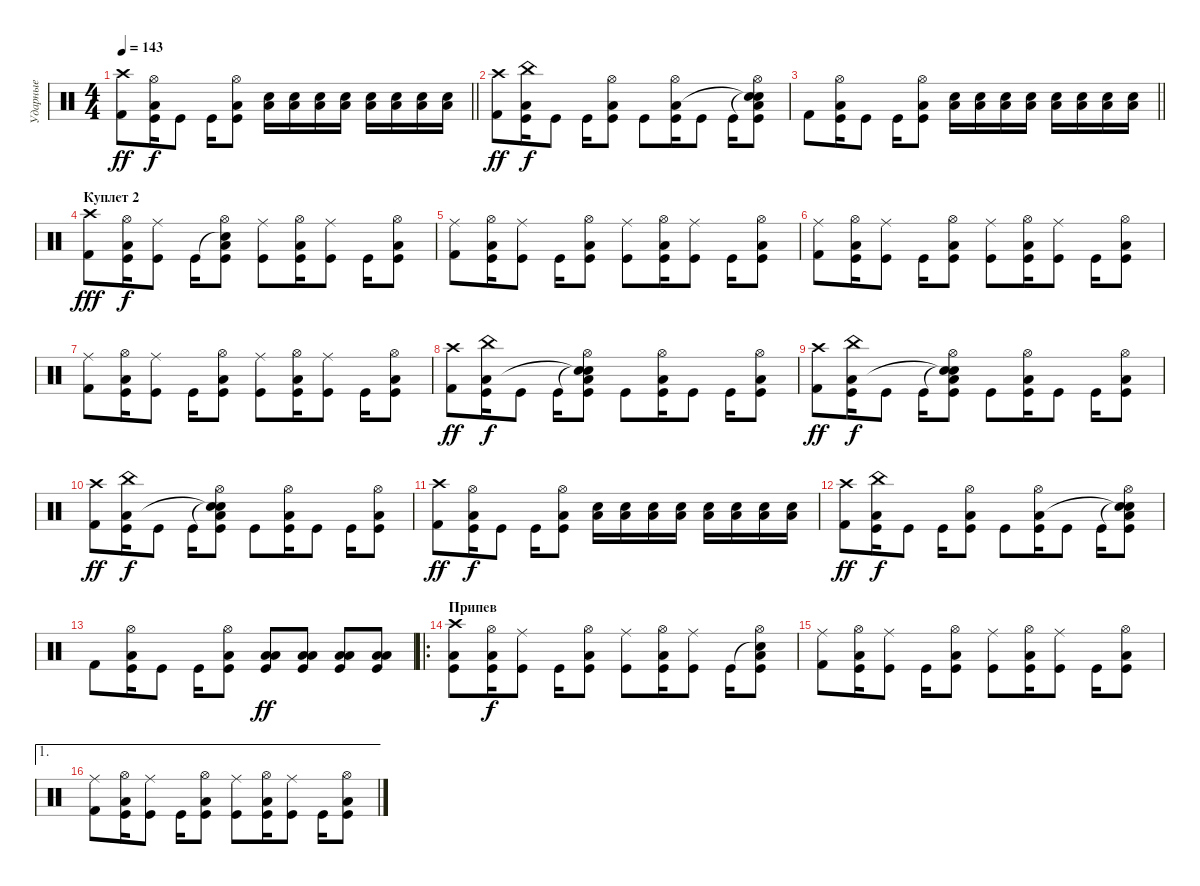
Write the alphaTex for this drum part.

\track ("Ударные" "Ударные") {instrument percussion}
\staff {score}
\articulation defaults
\ts (4 4)
\tempo 143
\clef neutral
\barLineRight lightlight
\ks c
("Crash high (hit)" "Kick (hit) 2").8{dy ff balance 14} ("Hi-Hat (open)" "Low Tom (hit)" "Kick (hit)").16{dy f} "Kick (hit)".8{balance 8} "Kick (hit)".16 ("Hi-Hat (open)" "Low Tom (hit)" "Kick (hit)").8 ("Snare (hit) 2" "Low Tom (hit)").16 ("Snare (hit) 2" "Low Tom (hit)").16 ("Snare (hit) 2" "Low Tom (hit)").16 ("Snare (hit) 2" "Low Tom (hit)").16 ("Snare (hit) 2" "Low Tom (hit)").16 ("Snare (hit) 2" "Low Tom (hit)").16 ("Snare (hit) 2" "Low Tom (hit)").16 ("Snare (hit) 2" "Low Tom (hit)").16 |
\section ("" " ")
("Crash high (hit)" "Kick (hit) 2").8{dy ff balance 14} ("China (hit)" "Low Tom (hit)" "Kick (hit)").16{dy f} "Kick (hit)".8{balance 8} "Kick (hit)".16 ("Hi-Hat (open)" "Low Tom (hit)" "Kick (hit)").8 "Kick (hit)".8 ("Hi-Hat (open)" "Low Tom (hit)" "Kick (hit)").16 "Kick (hit)".8 "Kick (hit)".16 ("Snare (hit)"{t} "Snare (hit)"{t} "Hi-Hat (open)" "Low Tom (hit)" "Kick (hit)").8 |
\barLineRight lightlight "Kick (hit) 2".8
("Hi-Hat (open)" "Low Tom (hit)" "Kick (hit)").16 "Kick (hit)".8 "Kick (hit)".16 ("Hi-Hat (open)" "Low Tom (hit)" "Kick (hit)").8 ("Snare (hit) 2" "Low Tom (hit)").16 ("Snare (hit) 2" "Low Tom (hit)").16 ("Snare (hit) 2" "Low Tom (hit)").16 ("Snare (hit) 2" "Low Tom (hit)").16 ("Snare (hit) 2" "Low Tom (hit)").16 ("Snare (hit) 2" "Low Tom (hit)").16 ("Snare (hit) 2" "Low Tom (hit)").16 ("Snare (hit) 2" "Low Tom (hit)").16 |
\section ("" "Куплет 2")
("Crash high (hit)" "Kick (hit) 2").8{dy fff balance 14} ("Hi-Hat (open)" "Low Tom (hit)" "Kick (hit)").16{dy f balance 8} ("Ride (middle)" "Kick (hit)").8 "Kick (hit)".16 ("Snare (hit)"{t} "Hi-Hat (open)" "Low Tom (hit)" "Kick (hit)").8 ("Ride (middle)" "Kick (hit)").8 ("Hi-Hat (open)" "Low Tom (hit)" "Kick (hit)").16 ("Ride (middle)" "Kick (hit)").8 "Kick (hit)".16 ("Hi-Hat (open)" "Low Tom (hit)" "Kick (hit)").8 |
("Ride (middle)" "Kick (hit) 2").8 ("Hi-Hat (open)" "Low Tom (hit)" "Kick (hit)").16 ("Ride (middle)" "Kick (hit)").8 "Kick (hit)".16 ("Hi-Hat (open)" "Low Tom (hit)" "Kick (hit)").8 ("Ride (middle)" "Kick (hit)").8 ("Hi-Hat (open)" "Low Tom (hit)" "Kick (hit)").16 ("Ride (middle)" "Kick (hit)").8 "Kick (hit)".16 ("Hi-Hat (open)" "Low Tom (hit)" "Kick (hit)").8 |
("Ride (middle)" "Kick (hit) 2").8 ("Hi-Hat (open)" "Low Tom (hit)" "Kick (hit)").16 ("Ride (middle)" "Kick (hit)").8 "Kick (hit)".16 ("Hi-Hat (open)" "Low Tom (hit)" "Kick (hit)").8 ("Ride (middle)" "Kick (hit)").8 ("Hi-Hat (open)" "Low Tom (hit)" "Kick (hit)").16 ("Ride (middle)" "Kick (hit)").8 "Kick (hit)".16 ("Hi-Hat (open)" "Low Tom (hit)" "Kick (hit)").8 |
("Ride (middle)" "Kick (hit) 2").8 ("Hi-Hat (open)" "Low Tom (hit)" "Kick (hit)").16 ("Ride (middle)" "Kick (hit)").8 "Kick (hit)".16 ("Hi-Hat (open)" "Low Tom (hit)" "Kick (hit)").8 ("Ride (middle)" "Kick (hit)").8 ("Hi-Hat (open)" "Low Tom (hit)" "Kick (hit)").16 ("Ride (middle)" "Kick (hit)").8 "Kick (hit)".16 ("Hi-Hat (open)" "Low Tom (hit)" "Kick (hit)").8 |
("Crash high (hit)" "Kick (hit) 2").8{dy ff balance 14} ("China (hit)" "Low Tom (hit)" "Kick (hit)").16{dy f} "Kick (hit)".8{balance 8} "Kick (hit)".16 ("Snare (hit)"{t} "Snare (hit)"{t} "Hi-Hat (open)" "Low Tom (hit)" "Kick (hit)").8 "Kick (hit)".8 ("Hi-Hat (open)" "Low Tom (hit)" "Kick (hit)").16 "Kick (hit)".8 "Kick (hit)".16 ("Hi-Hat (open)" "Low Tom (hit)" "Kick (hit)").8 |
("Crash high (hit)" "Kick (hit) 2").8{dy ff balance 14} ("China (hit)" "Low Tom (hit)" "Kick (hit)").16{dy f} "Kick (hit)".8{balance 8} "Kick (hit)".16 ("Snare (hit)"{t} "Snare (hit)"{t} "Hi-Hat (open)" "Low Tom (hit)" "Kick (hit)").8 "Kick (hit)".8 ("Hi-Hat (open)" "Low Tom (hit)" "Kick (hit)").16 "Kick (hit)".8 "Kick (hit)".16 ("Hi-Hat (open)" "Low Tom (hit)" "Kick (hit)").8 |
("Crash high (hit)" "Kick (hit) 2").8{dy ff balance 14} ("China (hit)" "Low Tom (hit)" "Kick (hit)").16{dy f} "Kick (hit)".8{balance 8} "Kick (hit)".16 ("Snare (hit)"{t} "Snare (hit)"{t} "Hi-Hat (open)" "Low Tom (hit)" "Kick (hit)").8 "Kick (hit)".8 ("Hi-Hat (open)" "Low Tom (hit)" "Kick (hit)").16 "Kick (hit)".8 "Kick (hit)".16 ("Hi-Hat (open)" "Low Tom (hit)" "Kick (hit)").8 |
("Crash high (hit)" "Kick (hit) 2").8{dy ff balance 14} ("Hi-Hat (open)" "Low Tom (hit)" "Kick (hit)").16{dy f} "Kick (hit)".8{balance 8} "Kick (hit)".16 ("Hi-Hat (open)" "Low Tom (hit)" "Kick (hit)").8 ("Snare (hit) 2" "Low Tom (hit)").16 ("Snare (hit) 2" "Low Tom (hit)").16 ("Snare (hit) 2" "Low Tom (hit)").16 ("Snare (hit) 2" "Low Tom (hit)").16 ("Snare (hit) 2" "Low Tom (hit)").16 ("Snare (hit) 2" "Low Tom (hit)").16 ("Snare (hit) 2" "Low Tom (hit)").16 ("Snare (hit) 2" "Low Tom (hit)").16 |
\section ("" " ")
("Crash high (hit)" "Kick (hit) 2").8{dy ff balance 14} ("China (hit)" "Low Tom (hit)" "Kick (hit)").16{dy f} "Kick (hit)".8{balance 8} "Kick (hit)".16 ("Hi-Hat (open)" "Low Tom (hit)" "Kick (hit)").8 "Kick (hit)".8 ("Hi-Hat (open)" "Low Tom (hit)" "Kick (hit)").16 "Kick (hit)".8 "Kick (hit)".16 ("Snare (hit)"{t} "Snare (hit)"{t} "Hi-Hat (open)" "Low Tom (hit)" "Kick (hit)").8 |
"Kick (hit) 2".8 ("Hi-Hat (open)" "Low Tom (hit)" "Kick (hit)").16 "Kick (hit)".8 "Kick (hit)".16 ("Hi-Hat (open)" "Low Tom (hit)" "Kick (hit)").8 ("Low Floor Tom (hit)" "Low Tom (hit)" "Kick (hit)").8{dy ff} ("Low Floor Tom (hit)" "Low Tom (hit)" "Kick (hit)").8 ("Low Floor Tom (hit)" "Low Tom (hit)" "Kick (hit)").8 ("Low Floor Tom (hit)" "Low Tom (hit)" "Kick (hit)").8 |
\ro
\section ("" "Припев")
("Crash high (hit)" "Low Floor Tom (hit)" "Kick (hit)").8{balance 14} ("Hi-Hat (open)" "Low Tom (hit)" "Kick (hit)").16{dy f} ("Ride (middle)" "Kick (hit)").8{balance 8} "Kick (hit)".16 ("Hi-Hat (open)" "Low Tom (hit)" "Kick (hit)").8 ("Ride (middle)" "Kick (hit)").8 ("Hi-Hat (open)" "Low Tom (hit)" "Kick (hit)").16 ("Ride (middle)" "Kick (hit)").8 "Kick (hit)".16 ("Snare (hit)"{t} "Hi-Hat (open)" "Low Tom (hit)" "Kick (hit)").8 |
("Ride (middle)" "Kick (hit) 2").8 ("Hi-Hat (open)" "Low Tom (hit)" "Kick (hit)").16 ("Ride (middle)" "Kick (hit)").8 "Kick (hit)".16 ("Hi-Hat (open)" "Low Tom (hit)" "Kick (hit)").8 ("Ride (middle)" "Kick (hit)").8 ("Hi-Hat (open)" "Low Tom (hit)" "Kick (hit)").16 ("Ride (middle)" "Kick (hit)").8 "Kick (hit)".16 ("Hi-Hat (open)" "Low Tom (hit)" "Kick (hit)").8 |
\ae 1
("Ride (middle)" "Kick (hit) 2").8 ("Hi-Hat (open)" "Low Tom (hit)" "Kick (hit)").16 ("Ride (middle)" "Kick (hit)").8 "Kick (hit)".16 ("Hi-Hat (open)" "Low Tom (hit)" "Kick (hit)").8 ("Ride (middle)" "Kick (hit)").8 ("Hi-Hat (open)" "Low Tom (hit)" "Kick (hit)").16 ("Ride (middle)" "Kick (hit)").8 "Kick (hit)".16 ("Hi-Hat (open)" "Low Tom (hit)" "Kick (hit)").8
